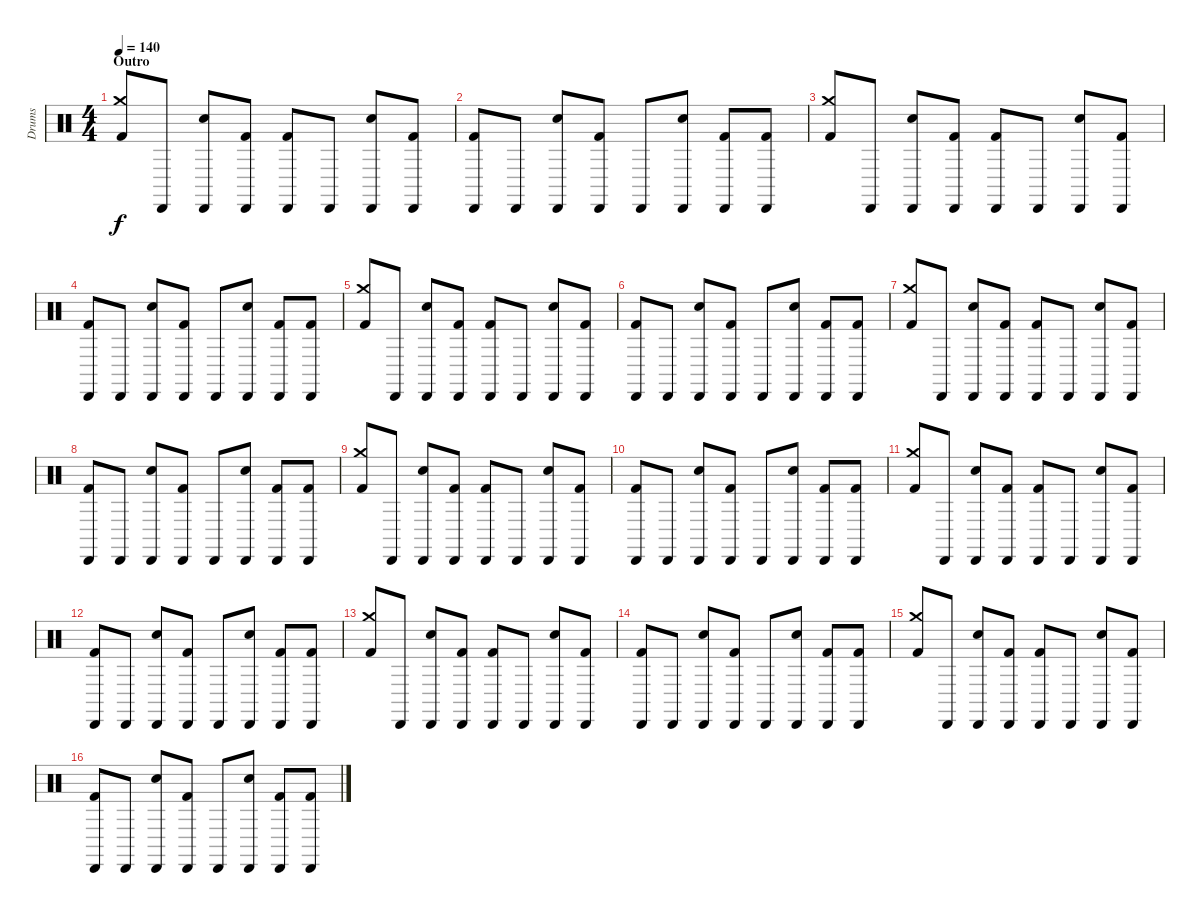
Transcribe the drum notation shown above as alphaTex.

\track ("Drums" "Drums") {instrument percussion}
\staff {score}
\articulation defaults
\ts (4 4)
\section ("" "Outro")
\tempo 140
\clef neutral
\ks c
("Crash medium (hit)" "Kick (hit) 2").8{dy f} "Cabasa (hit)".8 ("Cabasa (hit)" "Electric Snare (hit)").8 ("Cabasa (hit)" "Kick (hit) 2").8 ("Cabasa (hit)" "Kick (hit) 2").8 "Cabasa (hit)".8 ("Cabasa (hit)" "Electric Snare (hit)").8 ("Cabasa (hit)" "Kick (hit) 2").8 |
("Cabasa (hit)" "Kick (hit) 2").8 "Cabasa (hit)".8 ("Cabasa (hit)" "Electric Snare (hit)").8 ("Cabasa (hit)" "Kick (hit) 2").8 "Cabasa (hit)".8 ("Cabasa (hit)" "Electric Snare (hit)").8 ("Cabasa (hit)" "Kick (hit) 2").8 ("Cabasa (hit)" "Kick (hit) 2").8 |
("Crash medium (hit)" "Kick (hit) 2").8 "Cabasa (hit)".8 ("Cabasa (hit)" "Electric Snare (hit)").8 ("Cabasa (hit)" "Kick (hit) 2").8 ("Cabasa (hit)" "Kick (hit) 2").8 "Cabasa (hit)".8 ("Cabasa (hit)" "Electric Snare (hit)").8 ("Cabasa (hit)" "Kick (hit) 2").8 |
("Cabasa (hit)" "Kick (hit) 2").8 "Cabasa (hit)".8 ("Cabasa (hit)" "Electric Snare (hit)").8 ("Cabasa (hit)" "Kick (hit) 2").8 "Cabasa (hit)".8 ("Cabasa (hit)" "Electric Snare (hit)").8 ("Cabasa (hit)" "Kick (hit) 2").8 ("Cabasa (hit)" "Kick (hit) 2").8 |
("Crash medium (hit)" "Kick (hit) 2").8 "Cabasa (hit)".8 ("Cabasa (hit)" "Electric Snare (hit)").8 ("Cabasa (hit)" "Kick (hit) 2").8 ("Cabasa (hit)" "Kick (hit) 2").8 "Cabasa (hit)".8 ("Cabasa (hit)" "Electric Snare (hit)").8 ("Cabasa (hit)" "Kick (hit) 2").8 |
("Cabasa (hit)" "Kick (hit) 2").8 "Cabasa (hit)".8 ("Cabasa (hit)" "Electric Snare (hit)").8 ("Cabasa (hit)" "Kick (hit) 2").8 "Cabasa (hit)".8 ("Cabasa (hit)" "Electric Snare (hit)").8 ("Cabasa (hit)" "Kick (hit) 2").8 ("Cabasa (hit)" "Kick (hit) 2").8 |
("Crash medium (hit)" "Kick (hit) 2").8 "Cabasa (hit)".8 ("Cabasa (hit)" "Electric Snare (hit)").8 ("Cabasa (hit)" "Kick (hit) 2").8 ("Cabasa (hit)" "Kick (hit) 2").8 "Cabasa (hit)".8 ("Cabasa (hit)" "Electric Snare (hit)").8 ("Cabasa (hit)" "Kick (hit) 2").8 |
("Cabasa (hit)" "Kick (hit) 2").8 "Cabasa (hit)".8 ("Cabasa (hit)" "Electric Snare (hit)").8 ("Cabasa (hit)" "Kick (hit) 2").8 "Cabasa (hit)".8 ("Cabasa (hit)" "Electric Snare (hit)").8 ("Cabasa (hit)" "Kick (hit) 2").8 ("Cabasa (hit)" "Kick (hit) 2").8 |
("Crash medium (hit)" "Kick (hit) 2").8 "Cabasa (hit)".8 ("Cabasa (hit)" "Electric Snare (hit)").8 ("Cabasa (hit)" "Kick (hit) 2").8 ("Cabasa (hit)" "Kick (hit) 2").8 "Cabasa (hit)".8 ("Cabasa (hit)" "Electric Snare (hit)").8 ("Cabasa (hit)" "Kick (hit) 2").8 |
("Cabasa (hit)" "Kick (hit) 2").8 "Cabasa (hit)".8 ("Cabasa (hit)" "Electric Snare (hit)").8 ("Cabasa (hit)" "Kick (hit) 2").8 "Cabasa (hit)".8 ("Cabasa (hit)" "Electric Snare (hit)").8 ("Cabasa (hit)" "Kick (hit) 2").8 ("Cabasa (hit)" "Kick (hit) 2").8 |
("Crash medium (hit)" "Kick (hit) 2").8 "Cabasa (hit)".8 ("Cabasa (hit)" "Electric Snare (hit)").8 ("Cabasa (hit)" "Kick (hit) 2").8 ("Cabasa (hit)" "Kick (hit) 2").8 "Cabasa (hit)".8 ("Cabasa (hit)" "Electric Snare (hit)").8 ("Cabasa (hit)" "Kick (hit) 2").8 |
("Cabasa (hit)" "Kick (hit) 2").8 "Cabasa (hit)".8 ("Cabasa (hit)" "Electric Snare (hit)").8 ("Cabasa (hit)" "Kick (hit) 2").8 "Cabasa (hit)".8 ("Cabasa (hit)" "Electric Snare (hit)").8 ("Cabasa (hit)" "Kick (hit) 2").8 ("Cabasa (hit)" "Kick (hit) 2").8 |
("Crash medium (hit)" "Kick (hit) 2").8 "Cabasa (hit)".8 ("Cabasa (hit)" "Electric Snare (hit)").8 ("Cabasa (hit)" "Kick (hit) 2").8 ("Cabasa (hit)" "Kick (hit) 2").8 "Cabasa (hit)".8 ("Cabasa (hit)" "Electric Snare (hit)").8 ("Cabasa (hit)" "Kick (hit) 2").8 |
("Cabasa (hit)" "Kick (hit) 2").8 "Cabasa (hit)".8 ("Cabasa (hit)" "Electric Snare (hit)").8 ("Cabasa (hit)" "Kick (hit) 2").8 "Cabasa (hit)".8 ("Cabasa (hit)" "Electric Snare (hit)").8 ("Cabasa (hit)" "Kick (hit) 2").8 ("Cabasa (hit)" "Kick (hit) 2").8 |
("Crash medium (hit)" "Kick (hit) 2").8 "Cabasa (hit)".8 ("Cabasa (hit)" "Electric Snare (hit)").8 ("Cabasa (hit)" "Kick (hit) 2").8 ("Cabasa (hit)" "Kick (hit) 2").8 "Cabasa (hit)".8 ("Cabasa (hit)" "Electric Snare (hit)").8 ("Cabasa (hit)" "Kick (hit) 2").8 |
("Cabasa (hit)" "Kick (hit) 2").8 "Cabasa (hit)".8 ("Cabasa (hit)" "Electric Snare (hit)").8 ("Cabasa (hit)" "Kick (hit) 2").8 "Cabasa (hit)".8 ("Cabasa (hit)" "Electric Snare (hit)").8 ("Cabasa (hit)" "Kick (hit) 2").8 ("Cabasa (hit)" "Kick (hit) 2").8
